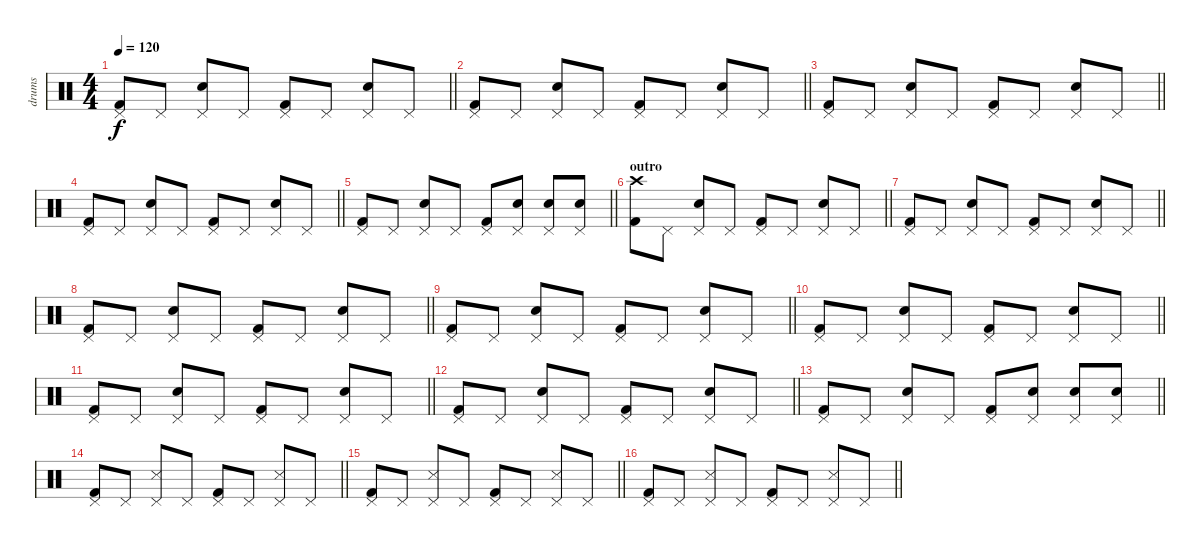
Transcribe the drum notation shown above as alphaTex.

\track ("drums" "drums") {instrument percussion}
\staff {score}
\articulation defaults
\ts (4 4)
\tempo 120
\clef neutral
\barLineRight lightlight
\ks c
("Kick (hit) 2" "Pedal Hi-Hat (hit)").8{dy f} "Pedal Hi-Hat (hit)".8 ("Electric Snare (hit)" "Pedal Hi-Hat (hit)").8 "Pedal Hi-Hat (hit)".8 ("Kick (hit) 2" "Pedal Hi-Hat (hit)").8 "Pedal Hi-Hat (hit)".8 ("Electric Snare (hit)" "Pedal Hi-Hat (hit)").8 "Pedal Hi-Hat (hit)".8 |
\barLineRight lightlight
("Kick (hit) 2" "Pedal Hi-Hat (hit)").8 "Pedal Hi-Hat (hit)".8 ("Electric Snare (hit)" "Pedal Hi-Hat (hit)").8 "Pedal Hi-Hat (hit)".8 ("Kick (hit) 2" "Pedal Hi-Hat (hit)").8 "Pedal Hi-Hat (hit)".8 ("Electric Snare (hit)" "Pedal Hi-Hat (hit)").8 "Pedal Hi-Hat (hit)".8 |
\barLineRight lightlight
("Kick (hit) 2" "Pedal Hi-Hat (hit)").8 "Pedal Hi-Hat (hit)".8 ("Electric Snare (hit)" "Pedal Hi-Hat (hit)").8 "Pedal Hi-Hat (hit)".8 ("Kick (hit) 2" "Pedal Hi-Hat (hit)").8 "Pedal Hi-Hat (hit)".8 ("Electric Snare (hit)" "Pedal Hi-Hat (hit)").8 "Pedal Hi-Hat (hit)".8 |
\barLineRight lightlight
("Kick (hit) 2" "Pedal Hi-Hat (hit)").8 "Pedal Hi-Hat (hit)".8 ("Electric Snare (hit)" "Pedal Hi-Hat (hit)").8 "Pedal Hi-Hat (hit)".8 ("Kick (hit) 2" "Pedal Hi-Hat (hit)").8 "Pedal Hi-Hat (hit)".8 ("Electric Snare (hit)" "Pedal Hi-Hat (hit)").8 "Pedal Hi-Hat (hit)".8 |
\barLineRight lightlight
("Kick (hit) 2" "Pedal Hi-Hat (hit)").8 "Pedal Hi-Hat (hit)".8 ("Electric Snare (hit)" "Pedal Hi-Hat (hit)").8 "Pedal Hi-Hat (hit)".8 ("Kick (hit) 2" "Pedal Hi-Hat (hit)").8 ("Electric Snare (hit)" "Pedal Hi-Hat (hit)").8 ("Electric Snare (hit)" "Pedal Hi-Hat (hit)").8 ("Electric Snare (hit)" "Pedal Hi-Hat (hit)").8 |
\section ("" "outro")
\barLineRight lightlight
("Kick (hit) 2" "Crash high (hit)").8 "Pedal Hi-Hat (hit)".8 ("Electric Snare (hit)" "Pedal Hi-Hat (hit)").8 "Pedal Hi-Hat (hit)".8 ("Kick (hit) 2" "Pedal Hi-Hat (hit)").8 "Pedal Hi-Hat (hit)".8 ("Electric Snare (hit)" "Pedal Hi-Hat (hit)").8 "Pedal Hi-Hat (hit)".8 |
\barLineRight lightlight
("Kick (hit) 2" "Pedal Hi-Hat (hit)").8 "Pedal Hi-Hat (hit)".8 ("Electric Snare (hit)" "Pedal Hi-Hat (hit)").8 "Pedal Hi-Hat (hit)".8 ("Kick (hit) 2" "Pedal Hi-Hat (hit)").8 "Pedal Hi-Hat (hit)".8 ("Electric Snare (hit)" "Pedal Hi-Hat (hit)").8 "Pedal Hi-Hat (hit)".8 |
\barLineRight lightlight
("Kick (hit) 2" "Pedal Hi-Hat (hit)").8 "Pedal Hi-Hat (hit)".8 ("Electric Snare (hit)" "Pedal Hi-Hat (hit)").8 "Pedal Hi-Hat (hit)".8 ("Kick (hit) 2" "Pedal Hi-Hat (hit)").8 "Pedal Hi-Hat (hit)".8 ("Electric Snare (hit)" "Pedal Hi-Hat (hit)").8 "Pedal Hi-Hat (hit)".8 |
\barLineRight lightlight
("Kick (hit) 2" "Pedal Hi-Hat (hit)").8 "Pedal Hi-Hat (hit)".8 ("Electric Snare (hit)" "Pedal Hi-Hat (hit)").8 "Pedal Hi-Hat (hit)".8 ("Kick (hit) 2" "Pedal Hi-Hat (hit)").8 "Pedal Hi-Hat (hit)".8 ("Electric Snare (hit)" "Pedal Hi-Hat (hit)").8 "Pedal Hi-Hat (hit)".8 |
\barLineRight lightlight
("Kick (hit) 2" "Pedal Hi-Hat (hit)").8 "Pedal Hi-Hat (hit)".8 ("Electric Snare (hit)" "Pedal Hi-Hat (hit)").8 "Pedal Hi-Hat (hit)".8 ("Kick (hit) 2" "Pedal Hi-Hat (hit)").8 "Pedal Hi-Hat (hit)".8 ("Electric Snare (hit)" "Pedal Hi-Hat (hit)").8 "Pedal Hi-Hat (hit)".8 |
\barLineRight lightlight
("Kick (hit) 2" "Pedal Hi-Hat (hit)").8 "Pedal Hi-Hat (hit)".8 ("Electric Snare (hit)" "Pedal Hi-Hat (hit)").8 "Pedal Hi-Hat (hit)".8 ("Kick (hit) 2" "Pedal Hi-Hat (hit)").8 "Pedal Hi-Hat (hit)".8 ("Electric Snare (hit)" "Pedal Hi-Hat (hit)").8 "Pedal Hi-Hat (hit)".8 |
\barLineRight lightlight
("Kick (hit) 2" "Pedal Hi-Hat (hit)").8 "Pedal Hi-Hat (hit)".8 ("Electric Snare (hit)" "Pedal Hi-Hat (hit)").8 "Pedal Hi-Hat (hit)".8 ("Kick (hit) 2" "Pedal Hi-Hat (hit)").8 "Pedal Hi-Hat (hit)".8 ("Electric Snare (hit)" "Pedal Hi-Hat (hit)").8 "Pedal Hi-Hat (hit)".8 |
\barLineRight lightlight
("Kick (hit) 2" "Pedal Hi-Hat (hit)").8 "Pedal Hi-Hat (hit)".8 ("Electric Snare (hit)" "Pedal Hi-Hat (hit)").8 "Pedal Hi-Hat (hit)".8 ("Kick (hit) 2" "Pedal Hi-Hat (hit)").8 ("Electric Snare (hit)" "Pedal Hi-Hat (hit)").8 ("Electric Snare (hit)" "Pedal Hi-Hat (hit)").8 ("Electric Snare (hit)" "Pedal Hi-Hat (hit)").8 |
\barLineRight lightlight
("Kick (hit) 2" "Pedal Hi-Hat (hit)").8{volume 7} "Pedal Hi-Hat (hit)".8 ("Snare (side stick) 3" "Pedal Hi-Hat (hit)").8 "Pedal Hi-Hat (hit)".8 ("Kick (hit) 2" "Pedal Hi-Hat (hit)").8 "Pedal Hi-Hat (hit)".8 ("Snare (side stick) 3" "Pedal Hi-Hat (hit)").8 "Pedal Hi-Hat (hit)".8 |
\barLineRight lightlight
("Kick (hit) 2" "Pedal Hi-Hat (hit)").8 "Pedal Hi-Hat (hit)".8 ("Snare (side stick) 3" "Pedal Hi-Hat (hit)").8 "Pedal Hi-Hat (hit)".8 ("Kick (hit) 2" "Pedal Hi-Hat (hit)").8 "Pedal Hi-Hat (hit)".8 ("Snare (side stick) 3" "Pedal Hi-Hat (hit)").8 "Pedal Hi-Hat (hit)".8 |
\barLineRight lightlight
("Kick (hit) 2" "Pedal Hi-Hat (hit)").8 "Pedal Hi-Hat (hit)".8 ("Snare (side stick) 3" "Pedal Hi-Hat (hit)").8 "Pedal Hi-Hat (hit)".8 ("Kick (hit) 2" "Pedal Hi-Hat (hit)").8 "Pedal Hi-Hat (hit)".8 ("Snare (side stick) 3" "Pedal Hi-Hat (hit)").8 "Pedal Hi-Hat (hit)".8
